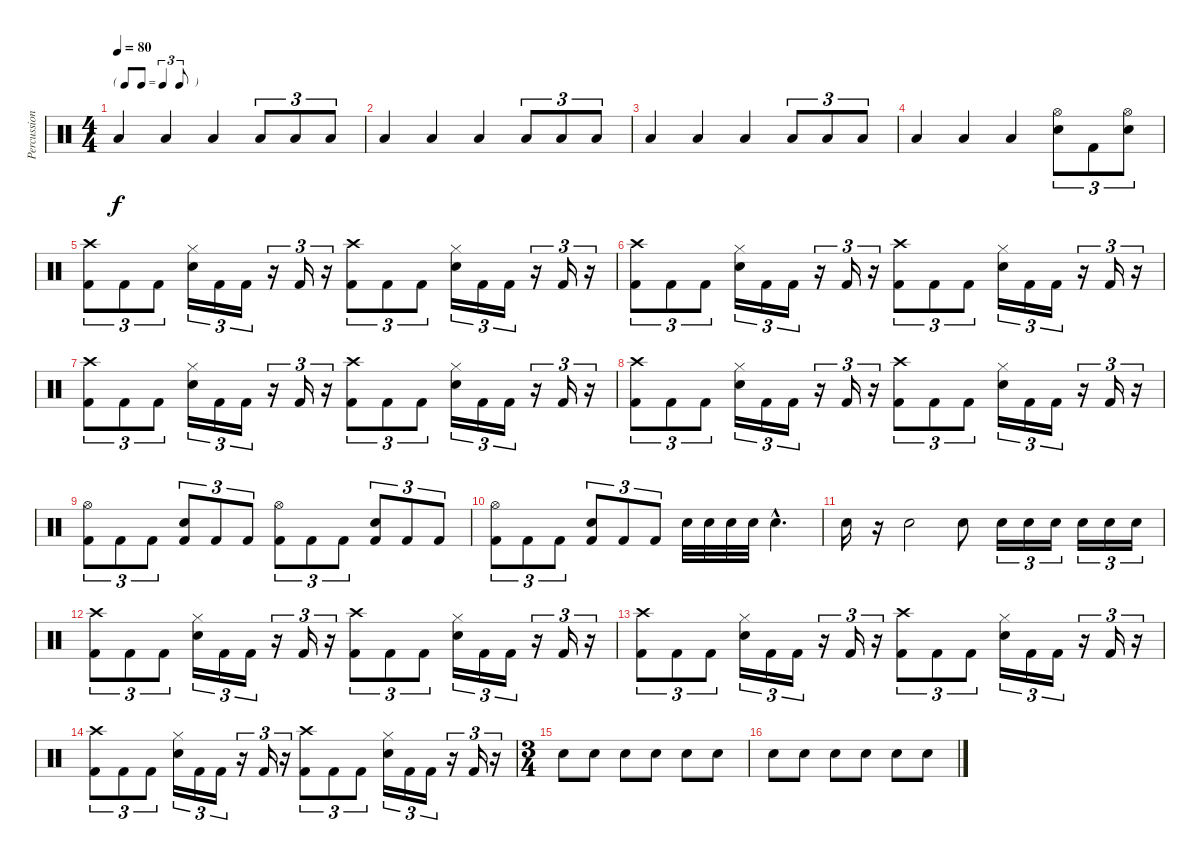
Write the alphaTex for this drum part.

\track ("Percussion" "Percussion") {instrument percussion}
\staff {score}
\articulation defaults
\ts (4 4)
\tf triplet8th
\tempo 80
\clef neutral
\ks c "Low Floor Tom (hit)".4{dy f} "Low Floor Tom (hit)".4 "Low Floor Tom (hit)".4 "Low Floor Tom (hit)".8{tu (3 2)} "Low Floor Tom (hit)".8{tu (3 2)} "Low Floor Tom (hit)".8{tu (3 2)}
|
"Low Floor Tom (hit)".4 "Low Floor Tom (hit)".4 "Low Floor Tom (hit)".4 "Low Floor Tom (hit)".8{tu (3 2)} "Low Floor Tom (hit)".8{tu (3 2)} "Low Floor Tom (hit)".8{tu (3 2)} |
"Low Floor Tom (hit)".4 "Low Floor Tom (hit)".4 "Low Floor Tom (hit)".4 "Low Floor Tom (hit)".8{tu (3 2)} "Low Floor Tom (hit)".8{tu (3 2)} "Low Floor Tom (hit)".8{tu (3 2)} |
"Low Floor Tom (hit)".4 "Low Floor Tom (hit)".4 "Low Floor Tom (hit)".4 ("Hi-Hat (open)" "Snare (hit) 2").8{tu (3 2)} "Kick (hit) 2".8{tu (3 2)} ("Hi-Hat (open)" "Snare (hit) 2").8{tu (3 2)} |
("Crash high (hit)" "Kick (hit) 2").8{tu (3 2)} "Kick (hit) 2".8{tu (3 2)} "Kick (hit) 2".8{tu (3 2)} ("Hi-Hat (closed)" "Snare (hit) 2").16{tu (3 2)} "Kick (hit) 2".16{tu (3 2)} "Kick (hit) 2".16{tu (3 2)} r.16{tu (3 2)} "Kick (hit) 2".16{tu (3 2)} r.16{tu (3 2)} ("Crash high (hit)" "Kick (hit) 2").8{tu (3 2)} "Kick (hit) 2".8{tu (3 2)} "Kick (hit) 2".8{tu (3 2)} ("Hi-Hat (closed)" "Snare (hit) 2").16{tu (3 2)} "Kick (hit) 2".16{tu (3 2)} "Kick (hit) 2".16{tu (3 2)} r.16{tu (3 2)} "Kick (hit) 2".16{tu (3 2)} r.16{tu (3 2)} |
("Crash high (hit)" "Kick (hit) 2").8{tu (3 2)} "Kick (hit) 2".8{tu (3 2)} "Kick (hit) 2".8{tu (3 2)} ("Hi-Hat (closed)" "Snare (hit) 2").16{tu (3 2)} "Kick (hit) 2".16{tu (3 2)} "Kick (hit) 2".16{tu (3 2)} r.16{tu (3 2)} "Kick (hit) 2".16{tu (3 2)} r.16{tu (3 2)} ("Crash high (hit)" "Kick (hit) 2").8{tu (3 2)} "Kick (hit) 2".8{tu (3 2)} "Kick (hit) 2".8{tu (3 2)} ("Hi-Hat (closed)" "Snare (hit) 2").16{tu (3 2)} "Kick (hit) 2".16{tu (3 2)} "Kick (hit) 2".16{tu (3 2)} r.16{tu (3 2)} "Kick (hit) 2".16{tu (3 2)} r.16{tu (3 2)} |
("Crash high (hit)" "Kick (hit) 2").8{tu (3 2)} "Kick (hit) 2".8{tu (3 2)} "Kick (hit) 2".8{tu (3 2)} ("Hi-Hat (closed)" "Snare (hit) 2").16{tu (3 2)} "Kick (hit) 2".16{tu (3 2)} "Kick (hit) 2".16{tu (3 2)} r.16{tu (3 2)} "Kick (hit) 2".16{tu (3 2)} r.16{tu (3 2)} ("Crash high (hit)" "Kick (hit) 2").8{tu (3 2)} "Kick (hit) 2".8{tu (3 2)} "Kick (hit) 2".8{tu (3 2)} ("Hi-Hat (closed)" "Snare (hit) 2").16{tu (3 2)} "Kick (hit) 2".16{tu (3 2)} "Kick (hit) 2".16{tu (3 2)} r.16{tu (3 2)} "Kick (hit) 2".16{tu (3 2)} r.16{tu (3 2)} |
("Crash high (hit)" "Kick (hit) 2").8{tu (3 2)} "Kick (hit) 2".8{tu (3 2)} "Kick (hit) 2".8{tu (3 2)} ("Hi-Hat (closed)" "Snare (hit) 2").16{tu (3 2)} "Kick (hit) 2".16{tu (3 2)} "Kick (hit) 2".16{tu (3 2)} r.16{tu (3 2)} "Kick (hit) 2".16{tu (3 2)} r.16{tu (3 2)} ("Crash high (hit)" "Kick (hit) 2").8{tu (3 2)} "Kick (hit) 2".8{tu (3 2)} "Kick (hit) 2".8{tu (3 2)} ("Hi-Hat (closed)" "Snare (hit) 2").16{tu (3 2)} "Kick (hit) 2".16{tu (3 2)} "Kick (hit) 2".16{tu (3 2)} r.16{tu (3 2)} "Kick (hit) 2".16{tu (3 2)} r.16{tu (3 2)} |
("Hi-Hat (open)" "Kick (hit) 2").8{tu (3 2)} "Kick (hit) 2".8{tu (3 2)} "Kick (hit) 2".8{tu (3 2)} ("Electric Snare (hit)" "Kick (hit) 2").8{tu (3 2)} "Kick (hit) 2".8{tu (3 2)} "Kick (hit) 2".8{tu (3 2)} ("Hi-Hat (open)" "Kick (hit) 2").8{tu (3 2)} "Kick (hit) 2".8{tu (3 2)} "Kick (hit) 2".8{tu (3 2)} ("Electric Snare (hit)" "Kick (hit) 2").8{tu (3 2)} "Kick (hit) 2".8{tu (3 2)} "Kick (hit) 2".8{tu (3 2)} |
("Hi-Hat (open)" "Kick (hit) 2").8{tu (3 2)} "Kick (hit) 2".8{tu (3 2)} "Kick (hit) 2".8{tu (3 2)} ("Electric Snare (hit)" "Kick (hit) 2").8{tu (3 2)} "Kick (hit) 2".8{tu (3 2)} "Kick (hit) 2".8{tu (3 2)} "Electric Snare (hit)".32 "Electric Snare (hit)".32 "Electric Snare (hit)".32 "Electric Snare (hit)".32 "Electric Snare (hit)"{hac}.4{d} |
"Electric Snare (hit)".16 r.16 "Electric Snare (hit)".2 "Electric Snare (hit)".8 "Electric Snare (hit)".16{tu (3 2)} "Electric Snare (hit)".16{tu (3 2)} "Electric Snare (hit)".16{tu (3 2)} "Electric Snare (hit)".16{tu (3 2)} "Electric Snare (hit)".16{tu (3 2)} "Electric Snare (hit)".16{tu (3 2)} |
("Crash high (hit)" "Kick (hit) 2").8{tu (3 2)} "Kick (hit) 2".8{tu (3 2)} "Kick (hit) 2".8{tu (3 2)} ("Hi-Hat (closed)" "Snare (hit) 2").16{tu (3 2)} "Kick (hit) 2".16{tu (3 2)} "Kick (hit) 2".16{tu (3 2)} r.16{tu (3 2)} "Kick (hit) 2".16{tu (3 2)} r.16{tu (3 2)} ("Crash high (hit)" "Kick (hit) 2").8{tu (3 2)} "Kick (hit) 2".8{tu (3 2)} "Kick (hit) 2".8{tu (3 2)} ("Hi-Hat (closed)" "Snare (hit) 2").16{tu (3 2)} "Kick (hit) 2".16{tu (3 2)} "Kick (hit) 2".16{tu (3 2)} r.16{tu (3 2)} "Kick (hit) 2".16{tu (3 2)} r.16{tu (3 2)} |
("Crash high (hit)" "Kick (hit) 2").8{tu (3 2)} "Kick (hit) 2".8{tu (3 2)} "Kick (hit) 2".8{tu (3 2)} ("Hi-Hat (closed)" "Snare (hit) 2").16{tu (3 2)} "Kick (hit) 2".16{tu (3 2)} "Kick (hit) 2".16{tu (3 2)} r.16{tu (3 2)} "Kick (hit) 2".16{tu (3 2)} r.16{tu (3 2)} ("Crash high (hit)" "Kick (hit) 2").8{tu (3 2)} "Kick (hit) 2".8{tu (3 2)} "Kick (hit) 2".8{tu (3 2)} ("Hi-Hat (closed)" "Snare (hit) 2").16{tu (3 2)} "Kick (hit) 2".16{tu (3 2)} "Kick (hit) 2".16{tu (3 2)} r.16{tu (3 2)} "Kick (hit) 2".16{tu (3 2)} r.16{tu (3 2)} |
("Crash high (hit)" "Kick (hit) 2").8{tu (3 2)} "Kick (hit) 2".8{tu (3 2)} "Kick (hit) 2".8{tu (3 2)} ("Hi-Hat (closed)" "Snare (hit) 2").16{tu (3 2)} "Kick (hit) 2".16{tu (3 2)} "Kick (hit) 2".16{tu (3 2)} r.16{tu (3 2)} "Kick (hit) 2".16{tu (3 2)} r.16{tu (3 2)} ("Crash high (hit)" "Kick (hit) 2").8{tu (3 2)} "Kick (hit) 2".8{tu (3 2)} "Kick (hit) 2".8{tu (3 2)} ("Hi-Hat (closed)" "Snare (hit) 2").16{tu (3 2)} "Kick (hit) 2".16{tu (3 2)} "Kick (hit) 2".16{tu (3 2)} r.16{tu (3 2)} "Kick (hit) 2".16{tu (3 2)} r.16{tu (3 2)} |
\ts (3 4)
"Electric Snare (hit)".8 "Electric Snare (hit)".8 "Electric Snare (hit)".8 "Electric Snare (hit)".8 "Electric Snare (hit)".8 "Electric Snare (hit)".8 |
"Electric Snare (hit)".8 "Electric Snare (hit)".8 "Electric Snare (hit)".8 "Electric Snare (hit)".8 "Electric Snare (hit)".8 "Electric Snare (hit)".8
